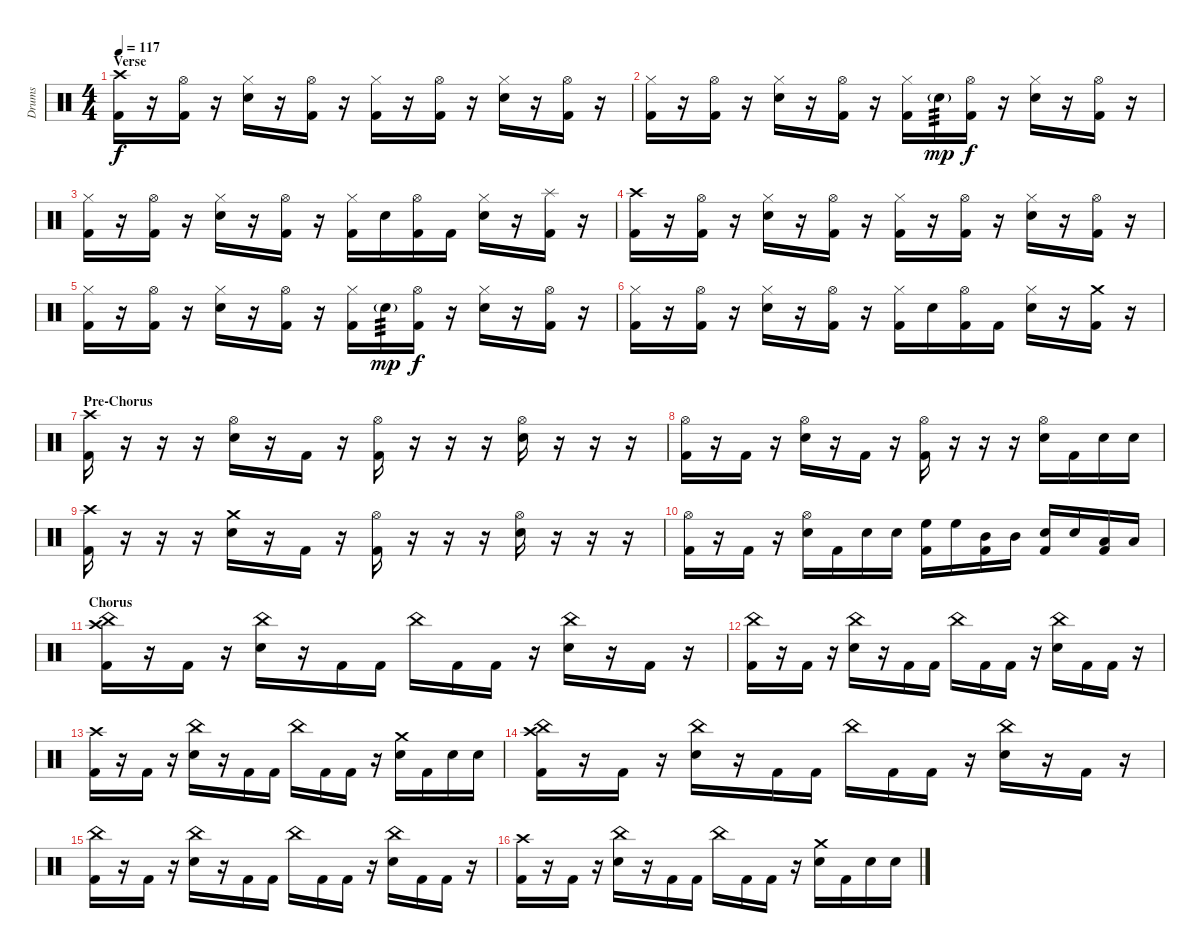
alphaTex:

\track ("Drums" "Drums") {instrument percussion}
\staff {score}
\articulation defaults
\ts (4 4)
\section ("" "Verse")
\tempo 117
\clef neutral
\ks c
("Crash high (hit)" "Kick (hit) 2").16{dy f} r.16 ("Hi-Hat (open)" "Kick (hit) 2").16 r.16 ("Hi-Hat (closed)" "Electric Snare (hit)").16 r.16 ("Hi-Hat (open)" "Kick (hit) 2").16 r.16 ("Hi-Hat (closed)" "Kick (hit) 2").16 r.16 ("Hi-Hat (open)" "Kick (hit) 2").16 r.16 ("Hi-Hat (closed)" "Electric Snare (hit)").16 r.16 ("Hi-Hat (open)" "Kick (hit) 2").16 r.16 |
("Hi-Hat (closed)" "Kick (hit) 2").16 r.16 ("Hi-Hat (open)" "Kick (hit) 2").16 r.16 ("Hi-Hat (closed)" "Electric Snare (hit)").16 r.16 ("Hi-Hat (open)" "Kick (hit) 2").16 r.16 ("Hi-Hat (closed)" "Kick (hit) 2").16 "Electric Snare (hit)"{g}.16{tp 3 dy mp} ("Hi-Hat (open)" "Kick (hit) 2").16{dy f} r.16 ("Hi-Hat (closed)" "Electric Snare (hit)").16 r.16 ("Hi-Hat (open)" "Kick (hit) 2").16 r.16 |
("Hi-Hat (closed)" "Kick (hit) 2").16 r.16 ("Hi-Hat (open)" "Kick (hit) 2").16 r.16 ("Hi-Hat (closed)" "Electric Snare (hit)").16 r.16 ("Hi-Hat (open)" "Kick (hit) 2").16 r.16 ("Hi-Hat (closed)" "Kick (hit) 2").16 "Electric Snare (hit)".16 ("Hi-Hat (open)" "Kick (hit) 2").16 "Kick (hit) 2".16 ("Hi-Hat (closed)" "Electric Snare (hit)").16 r.16 ("Splash (hit)" "Kick (hit) 2").16 r.16 |
("Crash high (hit)" "Kick (hit) 2").16 r.16 ("Hi-Hat (open)" "Kick (hit) 2").16 r.16 ("Hi-Hat (closed)" "Electric Snare (hit)").16 r.16 ("Hi-Hat (open)" "Kick (hit) 2").16 r.16 ("Hi-Hat (closed)" "Kick (hit) 2").16 r.16 ("Hi-Hat (open)" "Kick (hit) 2").16 r.16 ("Hi-Hat (closed)" "Electric Snare (hit)").16 r.16 ("Hi-Hat (open)" "Kick (hit) 2").16 r.16 |
("Hi-Hat (closed)" "Kick (hit) 2").16 r.16 ("Hi-Hat (open)" "Kick (hit) 2").16 r.16 ("Hi-Hat (closed)" "Electric Snare (hit)").16 r.16 ("Hi-Hat (open)" "Kick (hit) 2").16 r.16 ("Hi-Hat (closed)" "Kick (hit) 2").16 "Electric Snare (hit)"{g}.16{tp 3 dy mp} ("Hi-Hat (open)" "Kick (hit) 2").16{dy f} r.16 ("Hi-Hat (closed)" "Electric Snare (hit)").16 r.16 ("Hi-Hat (open)" "Kick (hit) 2").16 r.16 |
("Hi-Hat (closed)" "Kick (hit) 2").16 r.16 ("Hi-Hat (open)" "Kick (hit) 2").16 r.16 ("Hi-Hat (closed)" "Electric Snare (hit)").16 r.16 ("Hi-Hat (open)" "Kick (hit) 2").16 r.16 ("Hi-Hat (closed)" "Kick (hit) 2").16 "Electric Snare (hit)".16 ("Hi-Hat (open)" "Kick (hit) 2").16 "Kick (hit) 2".16 ("Hi-Hat (closed)" "Electric Snare (hit)").16 r.16 ("Crash medium (hit)" "Kick (hit) 2").16 r.16 |
\section ("" "Pre-Chorus")
("Crash high (hit)" "Kick (hit) 2").16 r.16 r.16 r.16 ("Hi-Hat (open)" "Electric Snare (hit)").16 r.16 "Kick (hit) 2".16 r.16 ("Hi-Hat (open)" "Kick (hit) 2").16 r.16 r.16 r.16 ("Hi-Hat (open)" "Electric Snare (hit)").16 r.16 r.16 r.16 |
("Hi-Hat (open)" "Kick (hit) 2").16 r.16 "Kick (hit) 2".16 r.16 ("Hi-Hat (open)" "Electric Snare (hit)").16 r.16 "Kick (hit) 2".16 r.16 ("Hi-Hat (open)" "Kick (hit) 2").16 r.16 r.16 r.16 ("Hi-Hat (open)" "Electric Snare (hit)").16 "Kick (hit) 2".16 "Electric Snare (hit)".16 "Electric Snare (hit)".16 |
("Crash high (hit)" "Kick (hit) 2").16 r.16 r.16 r.16 ("Crash medium (hit)" "Electric Snare (hit)").16 r.16 "Kick (hit) 2".16 r.16 ("Hi-Hat (open)" "Kick (hit) 2").16 r.16 r.16 r.16 ("Hi-Hat (open)" "Electric Snare (hit)").16 r.16 r.16 r.16 |
("Hi-Hat (open)" "Kick (hit) 2").16 r.16 "Kick (hit) 2".16 r.16 ("Hi-Hat (open)" "Electric Snare (hit)").16 "Kick (hit) 2".16 "Electric Snare (hit)".16 "Electric Snare (hit)".16 ("High Floor Tom (hit)" "Kick (hit) 2").16 "High Floor Tom (hit)".16 ("Mid Tom (hit)" "Kick (hit) 2").16 "Mid Tom (hit)".16 ("Electric Snare (hit)" "Kick (hit) 2").16 "Electric Snare (hit)".16 ("Low Tom (hit)" "Kick (hit) 2").16 "Low Floor Tom (hit)".16 |
\section ("" "Chorus")
("China (hit)" "Crash high (hit)" "Kick (hit) 2").16 r.16 "Kick (hit) 2".16 r.16 ("China (hit)" "Electric Snare (hit)").16 r.16 "Kick (hit) 2".16 "Kick (hit) 2".16 "China (hit)".16 "Kick (hit) 2".16 "Kick (hit) 2".16 r.16 ("China (hit)" "Electric Snare (hit)").16 r.16 "Kick (hit) 2".16 r.16 |
("China (hit)" "Kick (hit) 2").16 r.16 "Kick (hit) 2".16 r.16 ("China (hit)" "Electric Snare (hit)").16 r.16 "Kick (hit) 2".16 "Kick (hit) 2".16 "China (hit)".16 "Kick (hit) 2".16 "Kick (hit) 2".16 r.16 ("China (hit)" "Electric Snare (hit)").16 "Kick (hit) 2".16 "Kick (hit) 2".16 r.16 |
("Crash high (hit)" "Kick (hit) 2").16 r.16 "Kick (hit) 2".16 r.16 ("China (hit)" "Electric Snare (hit)").16 r.16 "Kick (hit) 2".16 "Kick (hit) 2".16 "China (hit)".16 "Kick (hit) 2".16 "Kick (hit) 2".16 r.16 ("Crash medium (hit)" "Electric Snare (hit)").16 "Kick (hit) 2".16 "Electric Snare (hit)".16 "Electric Snare (hit)".16 |
("China (hit)" "Crash high (hit)" "Kick (hit) 2").16 r.16 "Kick (hit) 2".16 r.16 ("China (hit)" "Electric Snare (hit)").16 r.16 "Kick (hit) 2".16 "Kick (hit) 2".16 "China (hit)".16 "Kick (hit) 2".16 "Kick (hit) 2".16 r.16 ("China (hit)" "Electric Snare (hit)").16 r.16 "Kick (hit) 2".16 r.16 |
("China (hit)" "Kick (hit) 2").16 r.16 "Kick (hit) 2".16 r.16 ("China (hit)" "Electric Snare (hit)").16 r.16 "Kick (hit) 2".16 "Kick (hit) 2".16 "China (hit)".16 "Kick (hit) 2".16 "Kick (hit) 2".16 r.16 ("China (hit)" "Electric Snare (hit)").16 "Kick (hit) 2".16 "Kick (hit) 2".16 r.16 |
("Crash high (hit)" "Kick (hit) 2").16 r.16 "Kick (hit) 2".16 r.16 ("China (hit)" "Electric Snare (hit)").16 r.16 "Kick (hit) 2".16 "Kick (hit) 2".16 "China (hit)".16 "Kick (hit) 2".16 "Kick (hit) 2".16 r.16 ("Crash medium (hit)" "Electric Snare (hit)").16 "Kick (hit) 2".16 "Electric Snare (hit)".16 "Electric Snare (hit)".16
